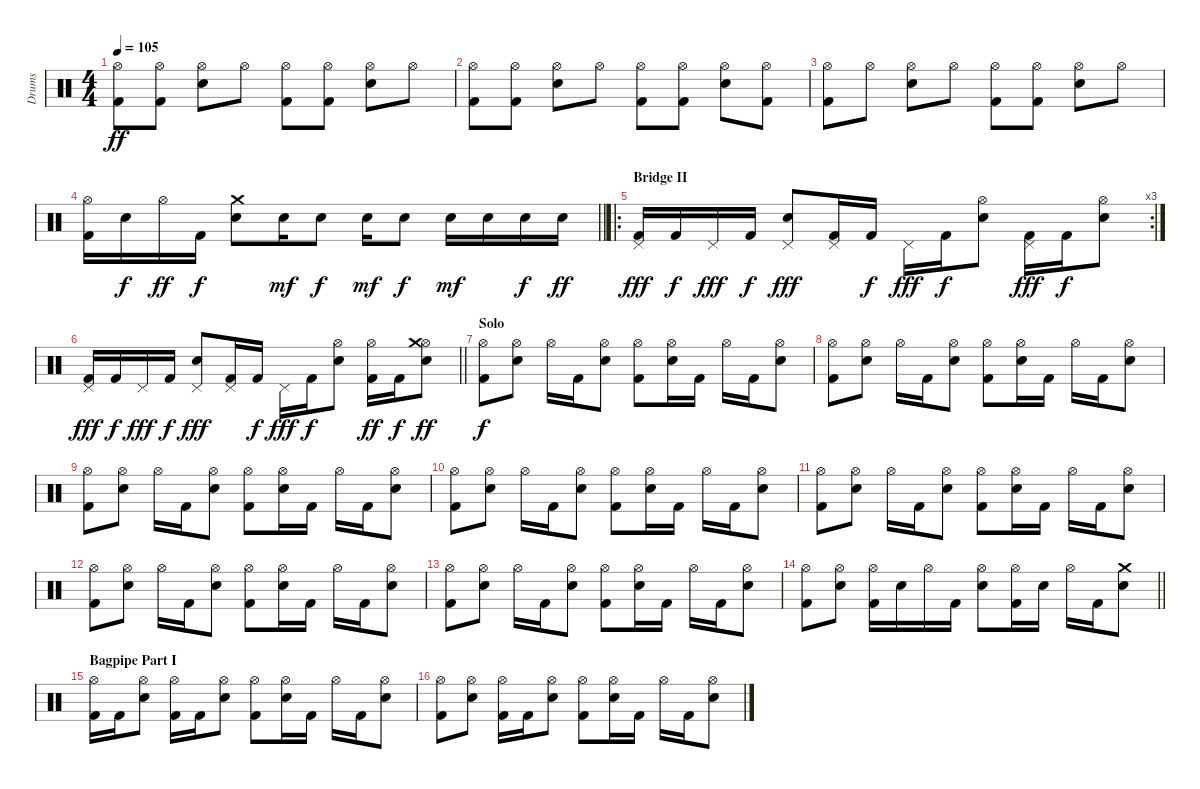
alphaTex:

\track ("Drums" "Drums") {instrument percussion}
\staff {score}
\articulation defaults
\ts (4 4)
\tempo 105
\clef neutral
\ks c
("Hi-Hat (open)" "Kick (hit) 2").8{dy ff} ("Hi-Hat (open)" "Kick (hit) 2").8 ("Hi-Hat (open)" "Electric Snare (hit)").8 "Hi-Hat (open)".8 ("Hi-Hat (open)" "Kick (hit) 2").8 ("Hi-Hat (open)" "Kick (hit) 2").8 ("Hi-Hat (open)" "Electric Snare (hit)").8 "Hi-Hat (open)".8 |
("Hi-Hat (open)" "Kick (hit) 2").8 ("Hi-Hat (open)" "Kick (hit) 2").8 ("Hi-Hat (open)" "Electric Snare (hit)").8 "Hi-Hat (open)".8 ("Hi-Hat (open)" "Kick (hit) 2").8 ("Hi-Hat (open)" "Kick (hit) 2").8 ("Hi-Hat (open)" "Electric Snare (hit)").8 ("Hi-Hat (open)" "Kick (hit) 2").8 |
("Hi-Hat (open)" "Kick (hit) 2").8 "Hi-Hat (open)".8 ("Hi-Hat (open)" "Electric Snare (hit)").8 "Hi-Hat (open)".8 ("Hi-Hat (open)" "Kick (hit) 2").8 ("Hi-Hat (open)" "Kick (hit) 2").8 ("Hi-Hat (open)" "Electric Snare (hit)").8 "Hi-Hat (open)".8 |
\barLineRight lightlight
("Hi-Hat (open)" "Kick (hit) 2").16 "Electric Snare (hit)".16{dy f} "Hi-Hat (open)".16{dy ff} "Kick (hit) 2".16{dy f} ("Crash medium (hit)" "Electric Snare (hit)").8 "Electric Snare (hit)".16{dy mf} "Electric Snare (hit)".8{dy f} "Electric Snare (hit)".16{dy mf} "Electric Snare (hit)".8{dy f} "Electric Snare (hit)".16{dy mf} "Electric Snare (hit)".16 "Electric Snare (hit)".16{dy f} "Electric Snare (hit)".16{dy ff} |
\ro
\rc 3
\section ("" "Bridge II")
("Pedal Hi-Hat (hit)" "Kick (hit) 2").16{dy fff} "Kick (hit) 2".16{dy f} "Pedal Hi-Hat (hit)".16{dy fff} "Kick (hit) 2".16{dy f} ("Pedal Hi-Hat (hit)" "Electric Snare (hit)").8{dy fff} ("Pedal Hi-Hat (hit)" "Kick (hit) 2").16 "Kick (hit) 2".16{dy f} "Pedal Hi-Hat (hit)".16{dy fff} "Kick (hit) 2".16{dy f} ("Hi-Hat (open)" "Electric Snare (hit)").8 ("Pedal Hi-Hat (hit)" "Kick (hit) 2").16{dy fff} "Kick (hit) 2".16{dy f} ("Hi-Hat (open)" "Electric Snare (hit)").8 |
\barLineRight lightlight
("Pedal Hi-Hat (hit)" "Kick (hit) 2").16{dy fff} "Kick (hit) 2".16{dy f} "Pedal Hi-Hat (hit)".16{dy fff} "Kick (hit) 2".16{dy f} ("Pedal Hi-Hat (hit)" "Electric Snare (hit)").8{dy fff} ("Pedal Hi-Hat (hit)" "Kick (hit) 2").16 "Kick (hit) 2".16{dy f} "Pedal Hi-Hat (hit)".16{dy fff} "Kick (hit) 2".16{dy f} ("Hi-Hat (open)" "Electric Snare (hit)").8 ("Hi-Hat (open)" "Kick (hit) 2").16{dy ff} "Kick (hit) 2".16{dy f} ("Hi-Hat (open)" "Crash medium (hit)" "Electric Snare (hit)").8{dy ff} |
\section ("" "Solo")
("Hi-Hat (open)" "Kick (hit) 2").8{dy f} ("Hi-Hat (open)" "Electric Snare (hit)").8 "Hi-Hat (open)".16 "Kick (hit) 2".16 ("Hi-Hat (open)" "Electric Snare (hit)").8 ("Hi-Hat (open)" "Kick (hit) 2").8 ("Hi-Hat (open)" "Electric Snare (hit)").16 "Kick (hit) 2".16 "Hi-Hat (open)".16 "Kick (hit) 2".16 ("Hi-Hat (open)" "Electric Snare (hit)").8 |
("Hi-Hat (open)" "Kick (hit) 2").8 ("Hi-Hat (open)" "Electric Snare (hit)").8 "Hi-Hat (open)".16 "Kick (hit) 2".16 ("Hi-Hat (open)" "Electric Snare (hit)").8 ("Hi-Hat (open)" "Kick (hit) 2").8 ("Hi-Hat (open)" "Electric Snare (hit)").16 "Kick (hit) 2".16 "Hi-Hat (open)".16 "Kick (hit) 2".16 ("Hi-Hat (open)" "Electric Snare (hit)").8 |
("Hi-Hat (open)" "Kick (hit) 2").8 ("Hi-Hat (open)" "Electric Snare (hit)").8 "Hi-Hat (open)".16 "Kick (hit) 2".16 ("Hi-Hat (open)" "Electric Snare (hit)").8 ("Hi-Hat (open)" "Kick (hit) 2").8 ("Hi-Hat (open)" "Electric Snare (hit)").16 "Kick (hit) 2".16 "Hi-Hat (open)".16 "Kick (hit) 2".16 ("Hi-Hat (open)" "Electric Snare (hit)").8 |
("Hi-Hat (open)" "Kick (hit) 2").8 ("Hi-Hat (open)" "Electric Snare (hit)").8 "Hi-Hat (open)".16 "Kick (hit) 2".16 ("Hi-Hat (open)" "Electric Snare (hit)").8 ("Hi-Hat (open)" "Kick (hit) 2").8 ("Hi-Hat (open)" "Electric Snare (hit)").16 "Kick (hit) 2".16 "Hi-Hat (open)".16 "Kick (hit) 2".16 ("Hi-Hat (open)" "Electric Snare (hit)").8 |
("Hi-Hat (open)" "Kick (hit) 2").8 ("Hi-Hat (open)" "Electric Snare (hit)").8 "Hi-Hat (open)".16 "Kick (hit) 2".16 ("Hi-Hat (open)" "Electric Snare (hit)").8 ("Hi-Hat (open)" "Kick (hit) 2").8 ("Hi-Hat (open)" "Electric Snare (hit)").16 "Kick (hit) 2".16 "Hi-Hat (open)".16 "Kick (hit) 2".16 ("Hi-Hat (open)" "Electric Snare (hit)").8 |
("Hi-Hat (open)" "Kick (hit) 2").8 ("Hi-Hat (open)" "Electric Snare (hit)").8 "Hi-Hat (open)".16 "Kick (hit) 2".16 ("Hi-Hat (open)" "Electric Snare (hit)").8 ("Hi-Hat (open)" "Kick (hit) 2").8 ("Hi-Hat (open)" "Electric Snare (hit)").16 "Kick (hit) 2".16 "Hi-Hat (open)".16 "Kick (hit) 2".16 ("Hi-Hat (open)" "Electric Snare (hit)").8 |
("Hi-Hat (open)" "Kick (hit) 2").8 ("Hi-Hat (open)" "Electric Snare (hit)").8 "Hi-Hat (open)".16 "Kick (hit) 2".16 ("Hi-Hat (open)" "Electric Snare (hit)").8 ("Hi-Hat (open)" "Kick (hit) 2").8 ("Hi-Hat (open)" "Electric Snare (hit)").16 "Kick (hit) 2".16 "Hi-Hat (open)".16 "Kick (hit) 2".16 ("Hi-Hat (open)" "Electric Snare (hit)").8 |
\barLineRight lightlight
("Hi-Hat (open)" "Kick (hit) 2").8 ("Hi-Hat (open)" "Electric Snare (hit)").8 ("Hi-Hat (open)" "Kick (hit) 2").16 "Electric Snare (hit)".16 "Hi-Hat (open)".16 "Kick (hit) 2".16 ("Hi-Hat (open)" "Electric Snare (hit)").8 ("Hi-Hat (open)" "Kick (hit) 2").16 "Electric Snare (hit)".16 "Hi-Hat (open)".16 "Kick (hit) 2".16 ("Crash medium (hit)" "Electric Snare (hit)").8 |
\section ("" "Bagpipe Part I")
("Hi-Hat (open)" "Kick (hit) 2").16 "Kick (hit) 2".16 ("Hi-Hat (open)" "Electric Snare (hit)").8 ("Hi-Hat (open)" "Kick (hit) 2").16 "Kick (hit) 2".16 ("Hi-Hat (open)" "Electric Snare (hit)").8 ("Hi-Hat (open)" "Kick (hit) 2").8 ("Hi-Hat (open)" "Electric Snare (hit)").16 "Kick (hit) 2".16 "Hi-Hat (open)".16 "Kick (hit) 2".16 ("Hi-Hat (open)" "Electric Snare (hit)").8 |
("Hi-Hat (open)" "Kick (hit) 2").8 ("Hi-Hat (open)" "Electric Snare (hit)").8 ("Hi-Hat (open)" "Kick (hit) 2").16 "Kick (hit) 2".16 ("Hi-Hat (open)" "Electric Snare (hit)").8 ("Hi-Hat (open)" "Kick (hit) 2").8 ("Hi-Hat (open)" "Electric Snare (hit)").16 "Kick (hit) 2".16 "Hi-Hat (open)".16 "Kick (hit) 2".16 ("Hi-Hat (open)" "Electric Snare (hit)").8
